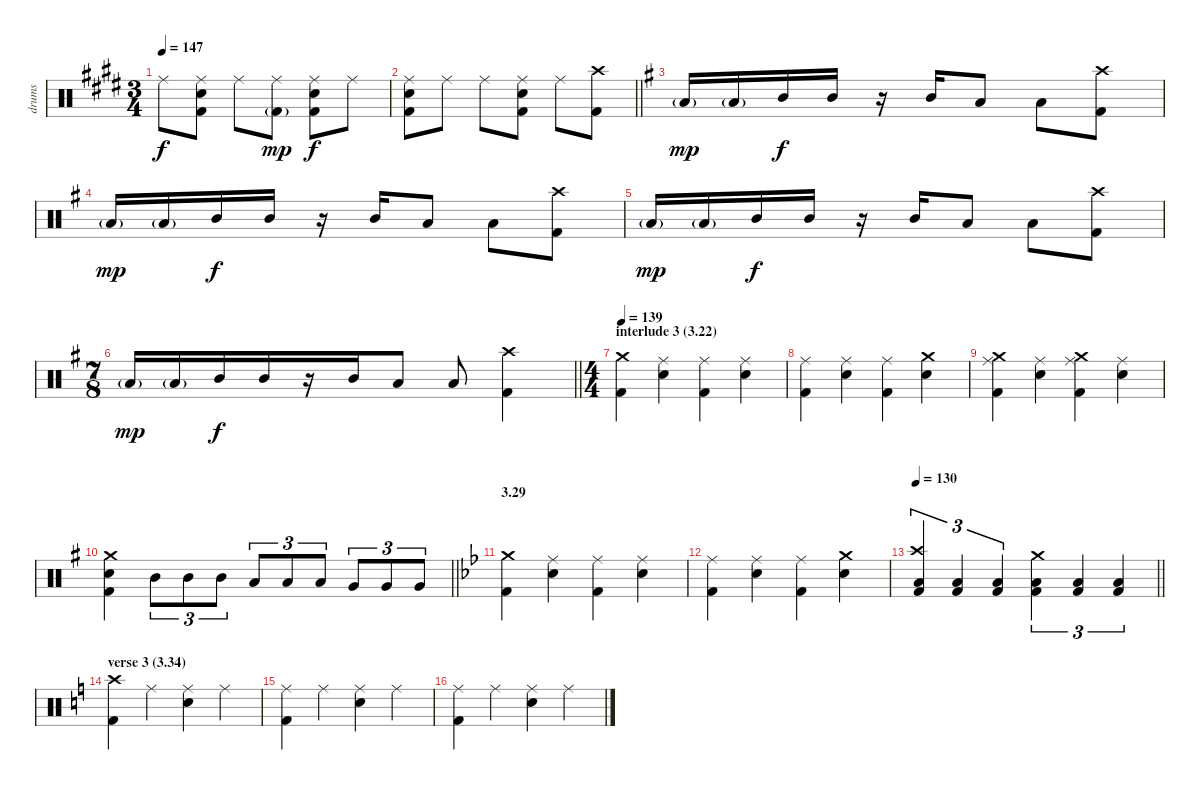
\track ("drums" "drums") {instrument percussion}
\staff {score}
\articulation defaults
\ts (3 4)
\tempo 147
\clef neutral
\ks e "Ride (middle)".8{dy f}
("Ride (middle)" "Electric Snare (hit)" "Kick (hit) 2").8 "Ride (middle)".8 ("Ride (middle)" "Kick (hit) 2"{g}).8{dy mp} ("Ride (middle)" "Electric Snare (hit)" "Kick (hit) 2").8{dy f} "Ride (middle)".8 |
\barLineRight lightlight
("Ride (middle)" "Electric Snare (hit)" "Kick (hit) 2").8 "Ride (middle)".8 "Ride (middle)".8 ("Ride (middle)" "Electric Snare (hit)" "Kick (hit) 2").8 "Ride (middle)".8 ("Crash high (hit)" "Kick (hit) 2").8 |
\ks g "Low Tom (hit)"{g}.16{dy mp} "Low Tom (hit)"{g}.16 "Mid Tom (hit)".16{dy f} "Mid Tom (hit)".16
r.16 "Mid Tom (hit)".16 "Low Tom (hit)".8 "Low Tom (hit)".8 ("Crash high (hit)" "Kick (hit) 2").8 |
"Low Tom (hit)"{g}.16{dy mp} "Low Tom (hit)"{g}.16 "Mid Tom (hit)".16{dy f} "Mid Tom (hit)".16 r.16 "Mid Tom (hit)".16 "Low Tom (hit)".8 "Low Tom (hit)".8 ("Crash high (hit)" "Kick (hit) 2").8 |
"Low Tom (hit)"{g}.16{dy mp} "Low Tom (hit)"{g}.16 "Mid Tom (hit)".16{dy f} "Mid Tom (hit)".16 r.16 "Mid Tom (hit)".16 "Low Tom (hit)".8 "Low Tom (hit)".8 ("Crash high (hit)" "Kick (hit) 2").8 |
\ts (7 8)
\barLineRight lightlight "Low Tom (hit)"{g}.16{dy mp} "Low Tom (hit)"{g}.16 "Mid Tom (hit)".16{dy f} "Mid Tom (hit)".16
r.16 "Mid Tom (hit)".16 "Low Tom (hit)".8 "Low Tom (hit)".8 ("Crash high (hit)" "Kick (hit) 2").4 |
\ts (4 4)
\section ("" "interlude 3 (3.22)")
\tempo 139
("Crash medium (hit)" "Kick (hit) 2").4 ("Ride (middle)" "Electric Snare (hit)").4 ("Ride (middle)" "Kick (hit) 2").4 ("Ride (middle)" "Electric Snare (hit)").4 |
("Ride (middle)" "Kick (hit) 2").4 ("Ride (middle)" "Electric Snare (hit)").4 ("Ride (middle)" "Kick (hit) 2").4 ("Crash medium (hit)" "Electric Snare (hit)").4 |
("Ride (middle)" "Crash medium (hit)" "Kick (hit) 2").4 ("Ride (middle)" "Electric Snare (hit)").4 ("Ride (middle)" "Crash medium (hit)" "Kick (hit) 2").4 ("Ride (middle)" "Electric Snare (hit)").4 |
\barLineRight lightlight
("Crash medium (hit)" "Electric Snare (hit)" "Kick (hit) 2").4 "Mid Tom (hit)".8{tu (3 2)} "Mid Tom (hit)".8{tu (3 2)} "Mid Tom (hit)".8{tu (3 2)} "Low Tom (hit)".8{tu (3 2)} "Low Tom (hit)".8{tu (3 2)} "Low Tom (hit)".8{tu (3 2)} "Very Low Tom (hit)".8{tu (3 2)} "Very Low Tom (hit)".8{tu (3 2)} "Very Low Tom (hit)".8{tu (3 2)} |
\section ("" "3.29")
\ks bb
("Crash medium (hit)" "Kick (hit) 2").4 ("Ride (middle)" "Electric Snare (hit)").4 ("Ride (middle)" "Kick (hit) 2").4 ("Ride (middle)" "Electric Snare (hit)").4 |
("Ride (middle)" "Kick (hit) 2").4 ("Ride (middle)" "Electric Snare (hit)").4 ("Ride (middle)" "Kick (hit) 2").4 ("Crash medium (hit)" "Electric Snare (hit)").4 |
\tempo 130
\barLineRight lightlight
("Crash high (hit)" "Low Tom (hit)" "Kick (hit) 2").4{tu (3 2)} ("Low Tom (hit)" "Kick (hit) 2").4{tu (3 2)} ("Low Tom (hit)" "Kick (hit) 2").4{tu (3 2)} ("Crash medium (hit)" "Low Tom (hit)" "Kick (hit) 2").4{tu (3 2)} ("Low Tom (hit)" "Kick (hit) 2").4{tu (3 2)} ("Low Tom (hit)" "Kick (hit) 2").4{tu (3 2)} |
\section ("" "verse 3 (3.34)")
\ks c
("Crash high (hit)" "Kick (hit) 2").4 "Ride (middle)".4 ("Ride (middle)" "Electric Snare (hit)").4 "Ride (middle)".4 |
("Ride (middle)" "Kick (hit) 2").4 "Ride (middle)".4 ("Ride (middle)" "Electric Snare (hit)").4 "Ride (middle)".4 |
("Ride (middle)" "Kick (hit) 2").4 "Ride (middle)".4 ("Ride (middle)" "Electric Snare (hit)").4 "Ride (middle)".4
